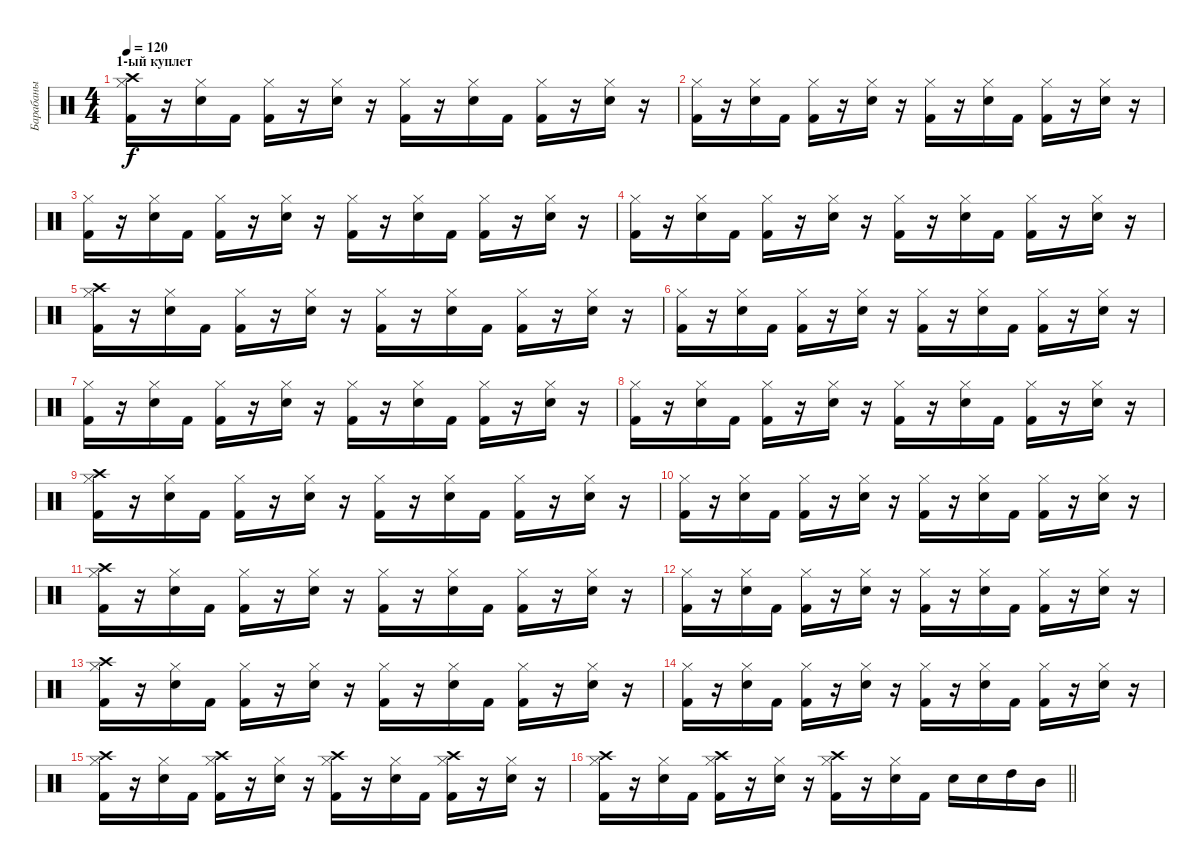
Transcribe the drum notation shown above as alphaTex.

\track ("Барабаны" "Барабаны") {instrument percussion}
\staff {score}
\articulation defaults
\ts (4 4)
\section ("" "1-ый куплет ")
\tempo 120
\clef neutral
\ks c
("Hi-Hat (closed)" "Kick (hit) 2" "Crash high (hit)").16{dy f} r.16 ("Hi-Hat (closed)" "Electric Snare (hit)").16 "Kick (hit) 2".16 ("Hi-Hat (closed)" "Kick (hit) 2").16 r.16 ("Hi-Hat (closed)" "Electric Snare (hit)").16 r.16 ("Hi-Hat (closed)" "Kick (hit) 2").16 r.16 ("Hi-Hat (closed)" "Electric Snare (hit)").16 "Kick (hit) 2".16 ("Hi-Hat (closed)" "Kick (hit) 2").16 r.16 ("Hi-Hat (closed)" "Electric Snare (hit)").16 r.16 |
("Hi-Hat (closed)" "Kick (hit) 2").16 r.16 ("Hi-Hat (closed)" "Electric Snare (hit)").16 "Kick (hit) 2".16 ("Hi-Hat (closed)" "Kick (hit) 2").16 r.16 ("Hi-Hat (closed)" "Electric Snare (hit)").16 r.16 ("Hi-Hat (closed)" "Kick (hit) 2").16 r.16 ("Hi-Hat (closed)" "Electric Snare (hit)").16 "Kick (hit) 2".16 ("Hi-Hat (closed)" "Kick (hit) 2").16 r.16 ("Hi-Hat (closed)" "Electric Snare (hit)").16 r.16 |
("Hi-Hat (closed)" "Kick (hit) 2").16 r.16 ("Hi-Hat (closed)" "Electric Snare (hit)").16 "Kick (hit) 2".16 ("Hi-Hat (closed)" "Kick (hit) 2").16 r.16 ("Hi-Hat (closed)" "Electric Snare (hit)").16 r.16 ("Hi-Hat (closed)" "Kick (hit) 2").16 r.16 ("Hi-Hat (closed)" "Electric Snare (hit)").16 "Kick (hit) 2".16 ("Hi-Hat (closed)" "Kick (hit) 2").16 r.16 ("Hi-Hat (closed)" "Electric Snare (hit)").16 r.16 |
("Hi-Hat (closed)" "Kick (hit) 2").16 r.16 ("Hi-Hat (closed)" "Electric Snare (hit)").16 "Kick (hit) 2".16 ("Hi-Hat (closed)" "Kick (hit) 2").16 r.16 ("Hi-Hat (closed)" "Electric Snare (hit)").16 r.16 ("Hi-Hat (closed)" "Kick (hit) 2").16 r.16 ("Hi-Hat (closed)" "Electric Snare (hit)").16 "Kick (hit) 2".16 ("Hi-Hat (closed)" "Kick (hit) 2").16 r.16 ("Hi-Hat (closed)" "Electric Snare (hit)").16 r.16 |
("Hi-Hat (closed)" "Kick (hit) 2" "Crash high (hit)").16 r.16 ("Hi-Hat (closed)" "Electric Snare (hit)").16 "Kick (hit) 2".16 ("Hi-Hat (closed)" "Kick (hit) 2").16 r.16 ("Hi-Hat (closed)" "Electric Snare (hit)").16 r.16 ("Hi-Hat (closed)" "Kick (hit) 2").16 r.16 ("Hi-Hat (closed)" "Electric Snare (hit)").16 "Kick (hit) 2".16 ("Hi-Hat (closed)" "Kick (hit) 2").16 r.16 ("Hi-Hat (closed)" "Electric Snare (hit)").16 r.16 |
("Hi-Hat (closed)" "Kick (hit) 2").16 r.16 ("Hi-Hat (closed)" "Electric Snare (hit)").16 "Kick (hit) 2".16 ("Hi-Hat (closed)" "Kick (hit) 2").16 r.16 ("Hi-Hat (closed)" "Electric Snare (hit)").16 r.16 ("Hi-Hat (closed)" "Kick (hit) 2").16 r.16 ("Hi-Hat (closed)" "Electric Snare (hit)").16 "Kick (hit) 2".16 ("Hi-Hat (closed)" "Kick (hit) 2").16 r.16 ("Hi-Hat (closed)" "Electric Snare (hit)").16 r.16 |
("Hi-Hat (closed)" "Kick (hit) 2").16 r.16 ("Hi-Hat (closed)" "Electric Snare (hit)").16 "Kick (hit) 2".16 ("Hi-Hat (closed)" "Kick (hit) 2").16 r.16 ("Hi-Hat (closed)" "Electric Snare (hit)").16 r.16 ("Hi-Hat (closed)" "Kick (hit) 2").16 r.16 ("Hi-Hat (closed)" "Electric Snare (hit)").16 "Kick (hit) 2".16 ("Hi-Hat (closed)" "Kick (hit) 2").16 r.16 ("Hi-Hat (closed)" "Electric Snare (hit)").16 r.16 |
("Hi-Hat (closed)" "Kick (hit) 2").16 r.16 ("Hi-Hat (closed)" "Electric Snare (hit)").16 "Kick (hit) 2".16 ("Hi-Hat (closed)" "Kick (hit) 2").16 r.16 ("Hi-Hat (closed)" "Electric Snare (hit)").16 r.16 ("Hi-Hat (closed)" "Kick (hit) 2").16 r.16 ("Hi-Hat (closed)" "Electric Snare (hit)").16 "Kick (hit) 2".16 ("Hi-Hat (closed)" "Kick (hit) 2").16 r.16 ("Hi-Hat (closed)" "Electric Snare (hit)").16 r.16 |
("Hi-Hat (closed)" "Kick (hit) 2" "Crash high (hit)").16 r.16 ("Hi-Hat (closed)" "Electric Snare (hit)").16 "Kick (hit) 2".16 ("Hi-Hat (closed)" "Kick (hit) 2").16 r.16 ("Hi-Hat (closed)" "Electric Snare (hit)").16 r.16 ("Hi-Hat (closed)" "Kick (hit) 2").16 r.16 ("Hi-Hat (closed)" "Electric Snare (hit)").16 "Kick (hit) 2".16 ("Hi-Hat (closed)" "Kick (hit) 2").16 r.16 ("Hi-Hat (closed)" "Electric Snare (hit)").16 r.16 |
("Hi-Hat (closed)" "Kick (hit) 2").16 r.16 ("Hi-Hat (closed)" "Electric Snare (hit)").16 "Kick (hit) 2".16 ("Hi-Hat (closed)" "Kick (hit) 2").16 r.16 ("Hi-Hat (closed)" "Electric Snare (hit)").16 r.16 ("Hi-Hat (closed)" "Kick (hit) 2").16 r.16 ("Hi-Hat (closed)" "Electric Snare (hit)").16 "Kick (hit) 2".16 ("Hi-Hat (closed)" "Kick (hit) 2").16 r.16 ("Hi-Hat (closed)" "Electric Snare (hit)").16 r.16 |
("Hi-Hat (closed)" "Kick (hit) 2" "Crash high (hit)").16 r.16 ("Hi-Hat (closed)" "Electric Snare (hit)").16 "Kick (hit) 2".16 ("Hi-Hat (closed)" "Kick (hit) 2").16 r.16 ("Hi-Hat (closed)" "Electric Snare (hit)").16 r.16 ("Hi-Hat (closed)" "Kick (hit) 2").16 r.16 ("Hi-Hat (closed)" "Electric Snare (hit)").16 "Kick (hit) 2".16 ("Hi-Hat (closed)" "Kick (hit) 2").16 r.16 ("Hi-Hat (closed)" "Electric Snare (hit)").16 r.16 |
("Hi-Hat (closed)" "Kick (hit) 2").16 r.16 ("Hi-Hat (closed)" "Electric Snare (hit)").16 "Kick (hit) 2".16 ("Hi-Hat (closed)" "Kick (hit) 2").16 r.16 ("Hi-Hat (closed)" "Electric Snare (hit)").16 r.16 ("Hi-Hat (closed)" "Kick (hit) 2").16 r.16 ("Hi-Hat (closed)" "Electric Snare (hit)").16 "Kick (hit) 2".16 ("Hi-Hat (closed)" "Kick (hit) 2").16 r.16 ("Hi-Hat (closed)" "Electric Snare (hit)").16 r.16 |
("Hi-Hat (closed)" "Kick (hit) 2" "Crash high (hit)").16 r.16 ("Hi-Hat (closed)" "Electric Snare (hit)").16 "Kick (hit) 2".16 ("Hi-Hat (closed)" "Kick (hit) 2").16 r.16 ("Hi-Hat (closed)" "Electric Snare (hit)").16 r.16 ("Hi-Hat (closed)" "Kick (hit) 2").16 r.16 ("Hi-Hat (closed)" "Electric Snare (hit)").16 "Kick (hit) 2".16 ("Hi-Hat (closed)" "Kick (hit) 2").16 r.16 ("Hi-Hat (closed)" "Electric Snare (hit)").16 r.16 |
("Hi-Hat (closed)" "Kick (hit) 2").16 r.16 ("Hi-Hat (closed)" "Electric Snare (hit)").16 "Kick (hit) 2".16 ("Hi-Hat (closed)" "Kick (hit) 2").16 r.16 ("Hi-Hat (closed)" "Electric Snare (hit)").16 r.16 ("Hi-Hat (closed)" "Kick (hit) 2").16 r.16 ("Hi-Hat (closed)" "Electric Snare (hit)").16 "Kick (hit) 2".16 ("Hi-Hat (closed)" "Kick (hit) 2").16 r.16 ("Hi-Hat (closed)" "Electric Snare (hit)").16 r.16 |
("Hi-Hat (closed)" "Kick (hit) 2" "Crash high (hit)").16 r.16 ("Hi-Hat (closed)" "Electric Snare (hit)").16 "Kick (hit) 2".16 ("Hi-Hat (closed)" "Kick (hit) 2" "Crash high (hit)").16 r.16 ("Hi-Hat (closed)" "Electric Snare (hit)").16 r.16 ("Hi-Hat (closed)" "Kick (hit) 2" "Crash high (hit)").16 r.16 ("Hi-Hat (closed)" "Electric Snare (hit)").16 "Kick (hit) 2".16 ("Hi-Hat (closed)" "Kick (hit) 2" "Crash high (hit)").16 r.16 ("Hi-Hat (closed)" "Electric Snare (hit)").16 r.16 |
\barLineRight lightlight
("Hi-Hat (closed)" "Kick (hit) 2" "Crash high (hit)").16 r.16 ("Hi-Hat (closed)" "Electric Snare (hit)").16 "Kick (hit) 2".16 ("Hi-Hat (closed)" "Kick (hit) 2" "Crash high (hit)").16 r.16 ("Hi-Hat (closed)" "Electric Snare (hit)").16 r.16 ("Hi-Hat (closed)" "Kick (hit) 2" "Crash high (hit)").16 r.16 ("Hi-Hat (closed)" "Electric Snare (hit)").16 "Kick (hit) 2".16 "Electric Snare (hit)".16 "Electric Snare (hit)".16 "High Tom (hit)".16 "Mid Tom (hit)".16
